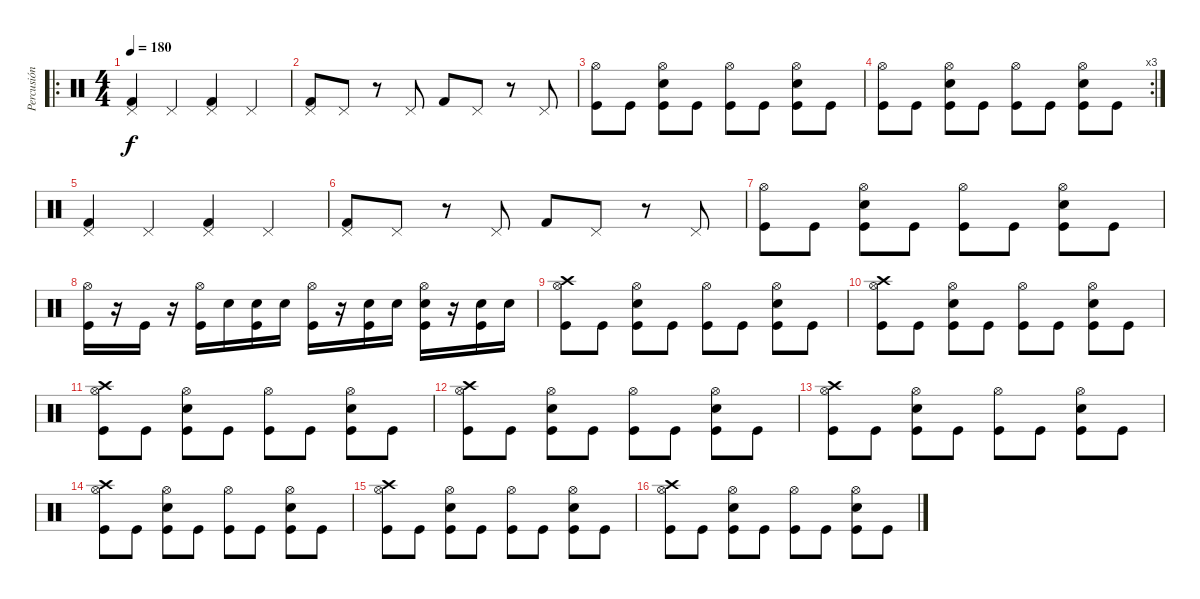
\track ("Percusión" "Percusión") {instrument percussion}
\staff {score}
\articulation defaults
\ro
\ts (4 4)
\tempo 180
\clef neutral
\ks c
("Pedal Hi-Hat (hit)" "Kick (hit) 2").4{dy f} "Pedal Hi-Hat (hit)".4 ("Pedal Hi-Hat (hit)" "Kick (hit) 2").4 "Pedal Hi-Hat (hit)".4 |
("Pedal Hi-Hat (hit)" "Kick (hit) 2").8 "Pedal Hi-Hat (hit)".8 r.8 "Pedal Hi-Hat (hit)".8 "Kick (hit) 2".8 "Pedal Hi-Hat (hit)".8 r.8 "Pedal Hi-Hat (hit)".8 |
("Hi-Hat (open)" "Kick (hit)").8 "Kick (hit)".8 ("Hi-Hat (open)" "Electric Snare (hit)" "Kick (hit)").8 "Kick (hit)".8 ("Hi-Hat (open)" "Kick (hit)").8 "Kick (hit)".8 ("Hi-Hat (open)" "Electric Snare (hit)" "Kick (hit)").8 "Kick (hit)".8 |
\rc 3
("Hi-Hat (open)" "Kick (hit)").8 "Kick (hit)".8 ("Hi-Hat (open)" "Electric Snare (hit)" "Kick (hit)").8 "Kick (hit)".8 ("Hi-Hat (open)" "Kick (hit)").8 "Kick (hit)".8 ("Hi-Hat (open)" "Electric Snare (hit)" "Kick (hit)").8 "Kick (hit)".8 |
("Pedal Hi-Hat (hit)" "Kick (hit) 2").4 "Pedal Hi-Hat (hit)".4 ("Pedal Hi-Hat (hit)" "Kick (hit) 2").4 "Pedal Hi-Hat (hit)".4 |
("Pedal Hi-Hat (hit)" "Kick (hit) 2").8 "Pedal Hi-Hat (hit)".8 r.8 "Pedal Hi-Hat (hit)".8 "Kick (hit) 2".8 "Pedal Hi-Hat (hit)".8 r.8 "Pedal Hi-Hat (hit)".8 |
("Hi-Hat (open)" "Kick (hit)").8 "Kick (hit)".8 ("Hi-Hat (open)" "Electric Snare (hit)" "Kick (hit)").8 "Kick (hit)".8 ("Hi-Hat (open)" "Kick (hit)").8 "Kick (hit)".8 ("Hi-Hat (open)" "Electric Snare (hit)" "Kick (hit)").8 "Kick (hit)".8 |
("Hi-Hat (open)" "Kick (hit)").16 r.16 "Kick (hit)".16 r.16 ("Hi-Hat (open)" "Kick (hit)").16 "Electric Snare (hit)".16 ("Electric Snare (hit)" "Kick (hit)").16 "Electric Snare (hit)".16 ("Hi-Hat (open)" "Kick (hit)").16 r.16 ("Electric Snare (hit)" "Kick (hit)").16 "Electric Snare (hit)".16 ("Hi-Hat (open)" "Electric Snare (hit)" "Kick (hit)").16 r.16 ("Electric Snare (hit)" "Kick (hit)").16 "Electric Snare (hit)".16 |
("Crash high (hit)" "Hi-Hat (open)" "Kick (hit)").8 "Kick (hit)".8 ("Hi-Hat (open)" "Electric Snare (hit)" "Kick (hit)").8 "Kick (hit)".8 ("Hi-Hat (open)" "Kick (hit)").8 "Kick (hit)".8 ("Hi-Hat (open)" "Electric Snare (hit)" "Kick (hit)").8 "Kick (hit)".8 |
("Crash high (hit)" "Hi-Hat (open)" "Kick (hit)").8 "Kick (hit)".8 ("Hi-Hat (open)" "Electric Snare (hit)" "Kick (hit)").8 "Kick (hit)".8 ("Hi-Hat (open)" "Kick (hit)").8 "Kick (hit)".8 ("Hi-Hat (open)" "Electric Snare (hit)" "Kick (hit)").8 "Kick (hit)".8 |
("Crash high (hit)" "Hi-Hat (open)" "Kick (hit)").8 "Kick (hit)".8 ("Hi-Hat (open)" "Electric Snare (hit)" "Kick (hit)").8 "Kick (hit)".8 ("Hi-Hat (open)" "Kick (hit)").8 "Kick (hit)".8 ("Hi-Hat (open)" "Electric Snare (hit)" "Kick (hit)").8 "Kick (hit)".8 |
("Crash high (hit)" "Hi-Hat (open)" "Kick (hit)").8 "Kick (hit)".8 ("Hi-Hat (open)" "Electric Snare (hit)" "Kick (hit)").8 "Kick (hit)".8 ("Hi-Hat (open)" "Kick (hit)").8 "Kick (hit)".8 ("Hi-Hat (open)" "Electric Snare (hit)" "Kick (hit)").8 "Kick (hit)".8 |
("Crash high (hit)" "Hi-Hat (open)" "Kick (hit)").8 "Kick (hit)".8 ("Hi-Hat (open)" "Electric Snare (hit)" "Kick (hit)").8 "Kick (hit)".8 ("Hi-Hat (open)" "Kick (hit)").8 "Kick (hit)".8 ("Hi-Hat (open)" "Electric Snare (hit)" "Kick (hit)").8 "Kick (hit)".8 |
("Crash high (hit)" "Hi-Hat (open)" "Kick (hit)").8 "Kick (hit)".8 ("Hi-Hat (open)" "Electric Snare (hit)" "Kick (hit)").8 "Kick (hit)".8 ("Hi-Hat (open)" "Kick (hit)").8 "Kick (hit)".8 ("Hi-Hat (open)" "Electric Snare (hit)" "Kick (hit)").8 "Kick (hit)".8 |
("Crash high (hit)" "Hi-Hat (open)" "Kick (hit)").8 "Kick (hit)".8 ("Hi-Hat (open)" "Electric Snare (hit)" "Kick (hit)").8 "Kick (hit)".8 ("Hi-Hat (open)" "Kick (hit)").8 "Kick (hit)".8 ("Hi-Hat (open)" "Electric Snare (hit)" "Kick (hit)").8 "Kick (hit)".8 |
("Crash high (hit)" "Hi-Hat (open)" "Kick (hit)").8 "Kick (hit)".8 ("Hi-Hat (open)" "Electric Snare (hit)" "Kick (hit)").8 "Kick (hit)".8 ("Hi-Hat (open)" "Kick (hit)").8 "Kick (hit)".8 ("Hi-Hat (open)" "Electric Snare (hit)" "Kick (hit)").8 "Kick (hit)".8
